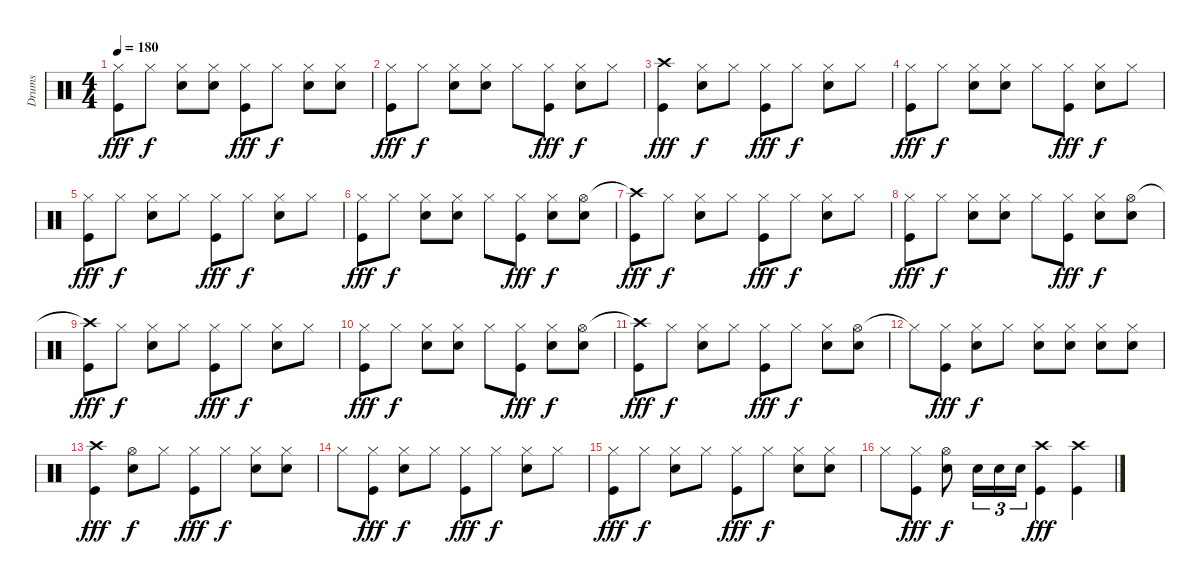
\track ("Drums" "Drums") {instrument percussion}
\staff {score}
\articulation defaults
\ts (4 4)
\tempo 180
\clef neutral
\ks c
("Hi-Hat (closed)" "Kick (hit)").8{dy fff} "Hi-Hat (closed)".8{dy f} ("Hi-Hat (closed)" "Snare (hit) 2").8 ("Hi-Hat (closed)" "Snare (hit) 2").8 ("Hi-Hat (closed)" "Kick (hit)").8{dy fff} "Hi-Hat (closed)".8{dy f} ("Hi-Hat (closed)" "Snare (hit) 2").8 ("Hi-Hat (closed)" "Snare (hit) 2").8 |
("Hi-Hat (closed)" "Kick (hit)").8{dy fff} "Hi-Hat (closed)".8{dy f} ("Hi-Hat (closed)" "Snare (hit) 2").8 ("Hi-Hat (closed)" "Snare (hit) 2").8 "Hi-Hat (closed)".8 ("Hi-Hat (closed)" "Kick (hit)").8{dy fff} ("Hi-Hat (closed)" "Snare (hit) 2").8{dy f} "Hi-Hat (closed)".8 |
("Crash high (hit)" "Kick (hit)").4{dy fff} ("Hi-Hat (closed)" "Snare (hit) 2").8{dy f} "Hi-Hat (closed)".8 ("Hi-Hat (closed)" "Kick (hit)").8{dy fff} "Hi-Hat (closed)".8{dy f} ("Hi-Hat (closed)" "Snare (hit) 2").8 "Hi-Hat (closed)".8 |
("Hi-Hat (closed)" "Kick (hit)").8{dy fff} "Hi-Hat (closed)".8{dy f} ("Hi-Hat (closed)" "Snare (hit) 2").8 ("Hi-Hat (closed)" "Snare (hit) 2").8 "Hi-Hat (closed)".8 ("Hi-Hat (closed)" "Kick (hit)").8{dy fff} ("Hi-Hat (closed)" "Snare (hit) 2").8{dy f} "Hi-Hat (closed)".8 |
("Hi-Hat (closed)" "Kick (hit)").8{dy fff} "Hi-Hat (closed)".8{dy f} ("Hi-Hat (closed)" "Snare (hit) 2").8 "Hi-Hat (closed)".8 ("Hi-Hat (closed)" "Kick (hit)").8{dy fff} "Hi-Hat (closed)".8{dy f} ("Hi-Hat (closed)" "Snare (hit) 2").8 "Hi-Hat (closed)".8 |
("Hi-Hat (closed)" "Kick (hit)").8{dy fff} "Hi-Hat (closed)".8{dy f} ("Hi-Hat (closed)" "Snare (hit) 2").8 ("Hi-Hat (closed)" "Snare (hit) 2").8 "Hi-Hat (closed)".8 ("Hi-Hat (closed)" "Kick (hit)").8{dy fff} ("Hi-Hat (closed)" "Snare (hit) 2").8{dy f} ("Hi-Hat (open)" "Snare (hit) 2").8 |
("Crash high (hit)"{t} "Kick (hit)").8{dy fff} "Hi-Hat (closed)".8{dy f} ("Hi-Hat (closed)" "Snare (hit) 2").8 "Hi-Hat (closed)".8 ("Hi-Hat (closed)" "Kick (hit)").8{dy fff} "Hi-Hat (closed)".8{dy f} ("Hi-Hat (closed)" "Snare (hit) 2").8 "Hi-Hat (closed)".8 |
("Hi-Hat (closed)" "Kick (hit)").8{dy fff} "Hi-Hat (closed)".8{dy f} ("Hi-Hat (closed)" "Snare (hit) 2").8 ("Hi-Hat (closed)" "Snare (hit) 2").8 "Hi-Hat (closed)".8 ("Hi-Hat (closed)" "Kick (hit)").8{dy fff} ("Hi-Hat (closed)" "Snare (hit) 2").8{dy f} ("Hi-Hat (open)" "Snare (hit) 2").8 |
("Crash high (hit)"{t} "Kick (hit)").8{dy fff} "Hi-Hat (closed)".8{dy f} ("Hi-Hat (closed)" "Snare (hit) 2").8 "Hi-Hat (closed)".8 ("Hi-Hat (closed)" "Kick (hit)").8{dy fff} "Hi-Hat (closed)".8{dy f} ("Hi-Hat (closed)" "Snare (hit) 2").8 "Hi-Hat (closed)".8 |
("Hi-Hat (closed)" "Kick (hit)").8{dy fff} "Hi-Hat (closed)".8{dy f} ("Hi-Hat (closed)" "Snare (hit) 2").8 ("Hi-Hat (closed)" "Snare (hit) 2").8 "Hi-Hat (closed)".8 ("Hi-Hat (closed)" "Kick (hit)").8{dy fff} ("Hi-Hat (closed)" "Snare (hit) 2").8{dy f} ("Hi-Hat (open)" "Snare (hit) 2").8 |
("Crash high (hit)"{t} "Kick (hit)").8{dy fff} "Hi-Hat (closed)".8{dy f} ("Hi-Hat (closed)" "Snare (hit) 2").8 "Hi-Hat (closed)".8 ("Hi-Hat (closed)" "Kick (hit)").8{dy fff} "Hi-Hat (closed)".8{dy f} ("Hi-Hat (closed)" "Snare (hit) 2").8 ("Hi-Hat (open)" "Snare (hit) 2").8 |
"Hi-Hat (closed)"{t}.8 ("Hi-Hat (closed)" "Kick (hit)").8{dy fff} ("Hi-Hat (closed)" "Snare (hit) 2").8{dy f} "Hi-Hat (closed)".8 ("Hi-Hat (closed)" "Snare (hit) 2").8 ("Hi-Hat (closed)" "Snare (hit) 2").8 ("Hi-Hat (closed)" "Snare (hit) 2").8 ("Hi-Hat (closed)" "Snare (hit) 2").8 |
("Crash high (hit)" "Kick (hit)").4{dy fff} ("Hi-Hat (open)" "Snare (hit) 2").8{dy f} "Hi-Hat (closed)".8 ("Hi-Hat (closed)" "Kick (hit)").8{dy fff} "Hi-Hat (closed)".8{dy f} ("Hi-Hat (closed)" "Snare (hit) 2").8 ("Hi-Hat (closed)" "Snare (hit) 2").8 |
"Hi-Hat (closed)".8 ("Hi-Hat (closed)" "Kick (hit)").8{dy fff} ("Hi-Hat (closed)" "Snare (hit) 2").8{dy f} "Hi-Hat (closed)".8 ("Hi-Hat (closed)" "Kick (hit)").8{dy fff} "Hi-Hat (closed)".8{dy f} ("Hi-Hat (closed)" "Snare (hit) 2").8 "Hi-Hat (closed)".8 |
("Hi-Hat (closed)" "Kick (hit)").8{dy fff} "Hi-Hat (closed)".8{dy f} ("Hi-Hat (closed)" "Snare (hit) 2").8 "Hi-Hat (closed)".8 ("Hi-Hat (closed)" "Kick (hit)").8{dy fff} "Hi-Hat (closed)".8{dy f} ("Hi-Hat (closed)" "Snare (hit) 2").8 ("Hi-Hat (closed)" "Snare (hit) 2").8 |
"Hi-Hat (closed)".8 ("Hi-Hat (closed)" "Kick (hit)").8{dy fff} ("Hi-Hat (open)" "Snare (hit) 2").8{dy f} "Snare (hit) 2".16{tu (3 2)} "Snare (hit) 2".16{tu (3 2)} "Snare (hit) 2".16{tu (3 2)} ("Crash high (hit)" "Kick (hit)").4{dy fff} ("Crash high (hit)" "Kick (hit)").4
